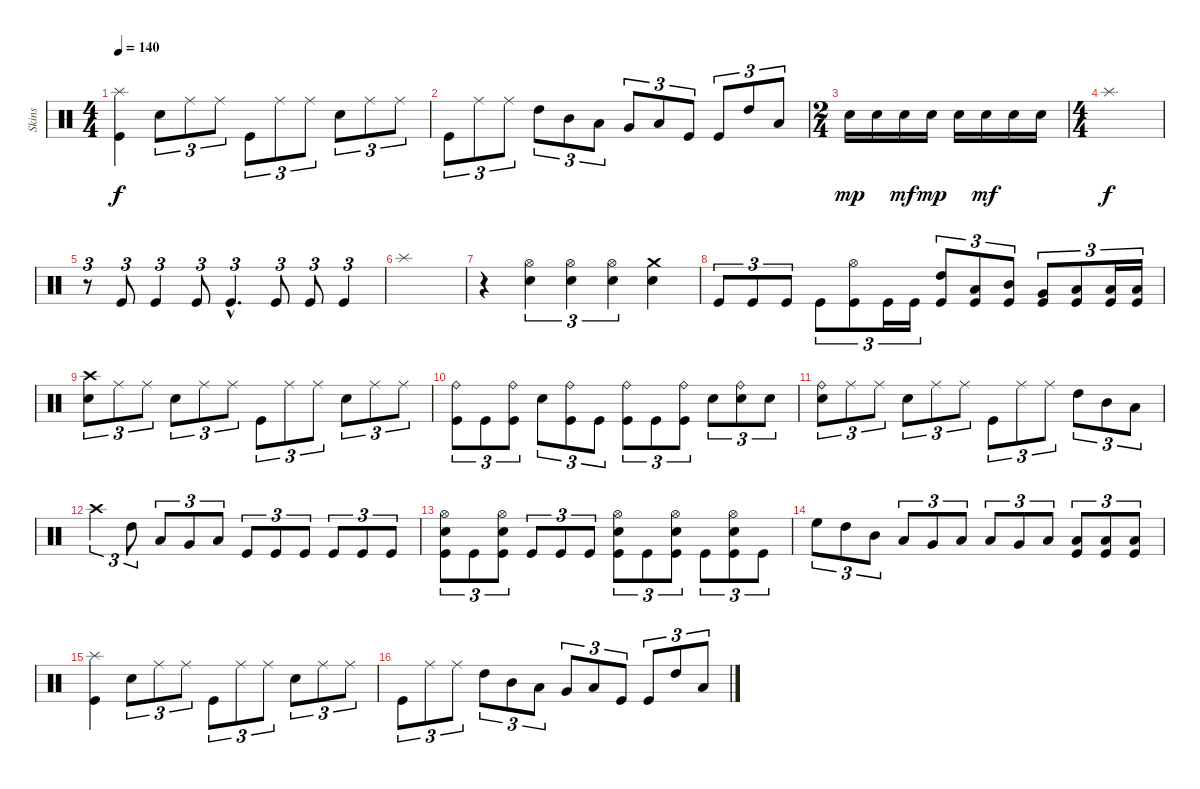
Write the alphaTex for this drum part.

\track ("Skins" "Skins") {instrument percussion}
\staff {score}
\articulation defaults
\ts (4 4)
\tempo 140
\clef neutral
\ks c
("Splash (hit)" "Kick (hit)").4{dy f} "Electric Snare (hit)".8{tu (3 2)} "Ride (middle)".8{tu (3 2)} "Ride (middle)".8{tu (3 2)} "Kick (hit)".8{tu (3 2)} "Ride (middle)".8{tu (3 2)} "Ride (middle)".8{tu (3 2)} "Electric Snare (hit)".8{tu (3 2)} "Ride (middle)".8{tu (3 2)} "Ride (middle)".8{tu (3 2)} |
"Kick (hit)".8{tu (3 2)} "Ride (middle)".8{tu (3 2)} "Ride (middle)".8{tu (3 2)} "High Tom (hit)".8{tu (3 2)} "Mid Tom (hit)".8{tu (3 2)} "Low Tom (hit)".8{tu (3 2)} "Very Low Tom (hit)".8{tu (3 2)} "Low Floor Tom (hit)".8{tu (3 2)} "Kick (hit)".8{tu (3 2)} "Kick (hit)".8{tu (3 2)} "High Tom (hit)".8{tu (3 2)} "Low Tom (hit)".8{tu (3 2)} |
\ts (2 4)
"Snare (hit) 2".16{dy mp} "Snare (hit) 2".16 "Snare (hit) 2".16{dy mf} "Snare (hit) 2".16{dy mp} "Snare (hit) 2".16 "Snare (hit) 2".16{dy mf} "Snare (hit) 2".16 "Snare (hit) 2".16 |
\ts (4 4)
"Splash (hit)".1{dy f} |
r.8{tu (3 2)} "Kick (hit)".8{tu (3 2)} "Kick (hit)".4{tu (3 2)} "Kick (hit)".8{tu (3 2)} "Kick (hit)"{hac}.4{d tu (3 2)} "Kick (hit)".8{tu (3 2)} "Kick (hit)".8{tu (3 2)} "Kick (hit)".4{tu (3 2)} |
"Splash (hit)".1 |
r.4 ("Hi-Hat (open)" "Electric Snare (hit)").4{tu (3 2)} ("Hi-Hat (open)" "Electric Snare (hit)").4{tu (3 2)} ("Hi-Hat (open)" "Electric Snare (hit)").4{tu (3 2)} ("Crash medium (hit)" "Snare (hit) 2").4 |
"Kick (hit)".8{tu (3 2)} "Kick (hit)".8{tu (3 2)} "Kick (hit)".8{tu (3 2)} "Kick (hit)".8{tu (3 2)} ("Hi-Hat (open)" "Kick (hit)").8{tu (3 2)} "Kick (hit)".16{tu (3 2)} "Kick (hit)".16{tu (3 2)} ("High Tom (hit)" "Kick (hit)").8{tu (3 2)} ("Low Tom (hit)" "Kick (hit)").8{tu (3 2)} ("Mid Tom (hit)" "Kick (hit)").8{tu (3 2)} ("Very Low Tom (hit)" "Kick (hit)").8{tu (3 2)} ("Low Floor Tom (hit)" "Kick (hit)").8{tu (3 2)} ("Low Floor Tom (hit)" "Kick (hit)").16{tu (3 2)} ("Low Floor Tom (hit)" "Kick (hit)").16{tu (3 2)} |
("Crash high (hit)" "Electric Snare (hit)").8{tu (3 2)} "Ride (middle)".8{tu (3 2)} "Ride (middle)".8{tu (3 2)} "Electric Snare (hit)".8{tu (3 2)} "Ride (middle)".8{tu (3 2)} "Ride (middle)".8{tu (3 2)} "Kick (hit)".8{tu (3 2)} "Ride (middle)".8{tu (3 2)} "Ride (middle)".8{tu (3 2)} "Electric Snare (hit)".8{tu (3 2)} "Ride (middle)".8{tu (3 2)} "Ride (middle)".8{tu (3 2)} |
("Ride (bell)" "Kick (hit)").8{tu (3 2)} "Kick (hit)".8{tu (3 2)} ("Ride (bell)" "Kick (hit)").8{tu (3 2)} "Electric Snare (hit)".8{tu (3 2)} ("Ride (bell)" "Kick (hit)").8{tu (3 2)} "Kick (hit)".8{tu (3 2)} ("Ride (bell)" "Kick (hit)").8{tu (3 2)} "Kick (hit)".8{tu (3 2)} ("Ride (bell)" "Kick (hit)").8{tu (3 2)} "Snare (hit) 2".8{tu (3 2)} ("Ride (bell)" "Snare (hit) 2").8{tu (3 2)} "Snare (hit) 2".8{tu (3 2)} |
("Ride (bell)" "Electric Snare (hit)").8{tu (3 2)} "Ride (middle)".8{tu (3 2)} "Ride (middle)".8{tu (3 2)} "Electric Snare (hit)".8{tu (3 2)} "Ride (middle)".8{tu (3 2)} "Ride (middle)".8{tu (3 2)} "Kick (hit)".8{tu (3 2)} "Ride (middle)".8{tu (3 2)} "Ride (middle)".8{tu (3 2)} "High Tom (hit)".8{tu (3 2)} "Mid Tom (hit)".8{tu (3 2)} "Low Tom (hit)".8{tu (3 2)} |
"Crash high (hit)".4{tu (3 2)} "High Tom (hit)".8{tu (3 2)} "Low Tom (hit)".8{tu (3 2)} "Very Low Tom (hit)".8{tu (3 2)} "Low Floor Tom (hit)".8{tu (3 2)} "Kick (hit)".8{tu (3 2)} "Kick (hit)".8{tu (3 2)} "Kick (hit)".8{tu (3 2)} "Kick (hit)".8{tu (3 2)} "Kick (hit)".8{tu (3 2)} "Kick (hit)".8{tu (3 2)} |
("Hi-Hat (open)" "Electric Snare (hit)" "Kick (hit)").8{tu (3 2)} "Kick (hit)".8{tu (3 2)} ("Hi-Hat (open)" "Electric Snare (hit)" "Kick (hit)").8{tu (3 2)} "Kick (hit)".8{tu (3 2)} "Kick (hit)".8{tu (3 2)} "Kick (hit)".8{tu (3 2)} ("Hi-Hat (open)" "Electric Snare (hit)" "Kick (hit)").8{tu (3 2)} "Kick (hit)".8{tu (3 2)} ("Hi-Hat (open)" "Electric Snare (hit)" "Kick (hit)").8{tu (3 2)} "Kick (hit)".8{tu (3 2)} ("Hi-Hat (open)" "Electric Snare (hit)" "Kick (hit)").8{tu (3 2)} "Kick (hit)".8{tu (3 2)} |
"High Floor Tom (hit)".8{tu (3 2)} "High Tom (hit)".8{tu (3 2)} "Mid Tom (hit)".8{tu (3 2)} "Low Tom (hit)".8{tu (3 2)} "Very Low Tom (hit)".8{tu (3 2)} "Low Floor Tom (hit)".8{tu (3 2)} "Low Tom (hit)".8{tu (3 2)} "Very Low Tom (hit)".8{tu (3 2)} "Low Floor Tom (hit)".8{tu (3 2)} ("Low Floor Tom (hit)" "Kick (hit)").8{tu (3 2)} ("Low Floor Tom (hit)" "Kick (hit)").8{tu (3 2)} ("Low Floor Tom (hit)" "Kick (hit)").8{tu (3 2)} |
("Splash (hit)" "Kick (hit)").4 "Electric Snare (hit)".8{tu (3 2)} "Ride (middle)".8{tu (3 2)} "Ride (middle)".8{tu (3 2)} "Kick (hit)".8{tu (3 2)} "Ride (middle)".8{tu (3 2)} "Ride (middle)".8{tu (3 2)} "Electric Snare (hit)".8{tu (3 2)} "Ride (middle)".8{tu (3 2)} "Ride (middle)".8{tu (3 2)} |
"Kick (hit)".8{tu (3 2)} "Ride (middle)".8{tu (3 2)} "Ride (middle)".8{tu (3 2)} "High Tom (hit)".8{tu (3 2)} "Mid Tom (hit)".8{tu (3 2)} "Low Tom (hit)".8{tu (3 2)} "Very Low Tom (hit)".8{tu (3 2)} "Low Floor Tom (hit)".8{tu (3 2)} "Kick (hit)".8{tu (3 2)} "Kick (hit)".8{tu (3 2)} "High Tom (hit)".8{tu (3 2)} "Low Tom (hit)".8{tu (3 2)}
